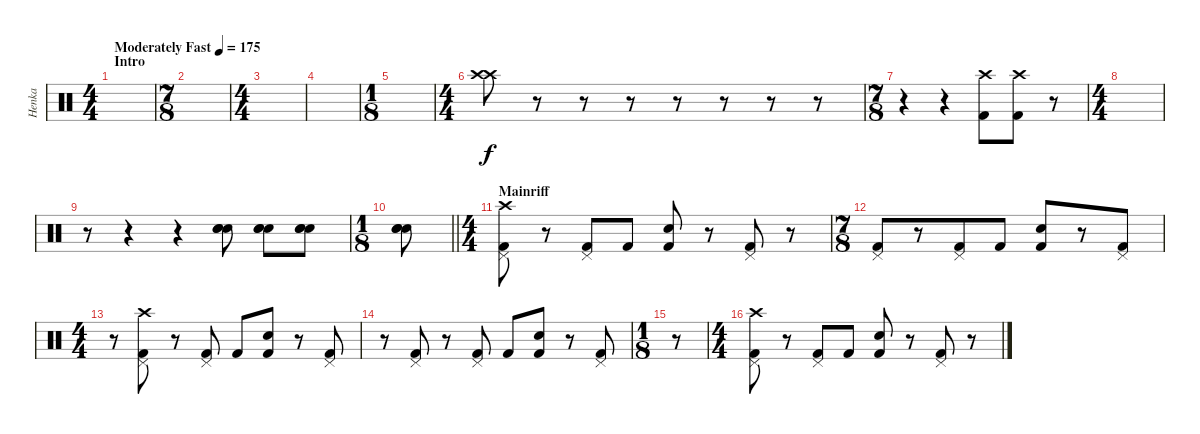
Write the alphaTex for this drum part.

\track ("Henka" "Henka") {instrument percussion}
\staff {score}
\articulation defaults
\ts (4 4)
\section ("" "Intro")
\tempo (175 "Moderately Fast")
\clef neutral
\ks c
|
\ts (7 8)
|
\ts (4 4)
|
|
\ts (1 8)
|
\ts (4 4)
("Crash high (hit)" "Crash high (hit)").8 r.8 r.8 r.8 r.8 r.8 r.8 r.8 |
\ts (7 8)
r.4 r.4 ("Crash high (hit)" "Kick (hit) 2").8 ("Crash high (hit)" "Kick (hit) 2").8 r.8 |
\ts (4 4)
|
r.8 r.4 r.4 ("Snare (hit) 2" "Electric Snare (hit)" "Snare (hit) 2").8 ("Snare (hit) 2" "Electric Snare (hit)" "Snare (hit) 2").8 ("Snare (hit) 2" "Electric Snare (hit)" "Snare (hit) 2").8 |
\ts (1 8)
\barLineRight lightlight
("Snare (hit) 2" "Electric Snare (hit)" "Snare (hit) 2").8 |
\ts (4 4)
\section ("" "Mainriff")
("Crash high (hit)" "Pedal Hi-Hat (hit)" "Kick (hit) 2").8 r.8 ("Pedal Hi-Hat (hit)" "Kick (hit) 2").8 "Kick (hit) 2".8 ("Snare (hit) 2" "Kick (hit) 2").8 r.8 ("Pedal Hi-Hat (hit)" "Kick (hit) 2").8 r.8 |
\ts (7 8)
("Pedal Hi-Hat (hit)" "Kick (hit) 2").8 r.8 ("Pedal Hi-Hat (hit)" "Kick (hit) 2").8 "Kick (hit) 2".8 ("Snare (hit) 2" "Kick (hit) 2").8 r.8 ("Pedal Hi-Hat (hit)" "Kick (hit) 2").8 |
\ts (4 4)
r.8 ("Crash high (hit)" "Pedal Hi-Hat (hit)" "Kick (hit) 2").8 r.8 ("Pedal Hi-Hat (hit)" "Kick (hit) 2").8 "Kick (hit) 2".8 ("Snare (hit) 2" "Kick (hit) 2").8 r.8 ("Pedal Hi-Hat (hit)" "Kick (hit) 2").8 |
r.8 ("Pedal Hi-Hat (hit)" "Kick (hit) 2").8 r.8 ("Pedal Hi-Hat (hit)" "Kick (hit) 2").8 "Kick (hit) 2".8 ("Snare (hit) 2" "Kick (hit) 2").8 r.8 ("Pedal Hi-Hat (hit)" "Kick (hit) 2").8 |
\ts (1 8)
r.8 |
\ts (4 4)
("Crash high (hit)" "Pedal Hi-Hat (hit)" "Kick (hit) 2").8 r.8 ("Pedal Hi-Hat (hit)" "Kick (hit) 2").8 "Kick (hit) 2".8 ("Snare (hit) 2" "Kick (hit) 2").8 r.8 ("Pedal Hi-Hat (hit)" "Kick (hit) 2").8 r.8
